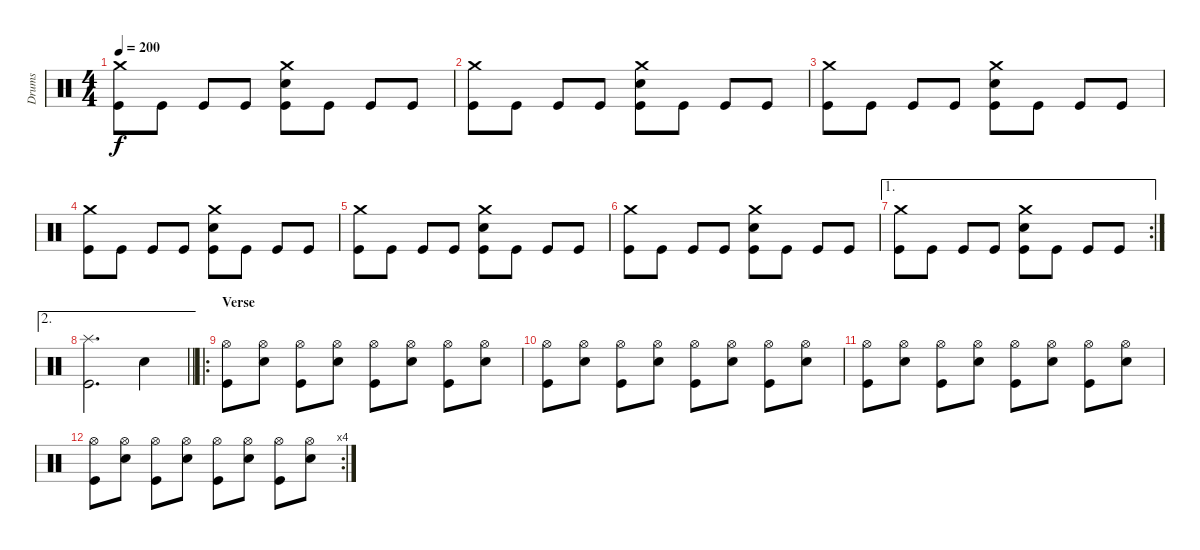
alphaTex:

\track ("Drums" "Drums") {instrument percussion}
\staff {score}
\articulation defaults
\ts (4 4)
\tempo 200
\clef neutral
\ks c
("Crash medium (hit)" "Kick (hit)").8{dy f} "Kick (hit)".8 "Kick (hit)".8 "Kick (hit)".8 ("Crash medium (hit)" "Snare (hit) 2" "Kick (hit)").8 "Kick (hit)".8 "Kick (hit)".8 "Kick (hit)".8 |
("Crash medium (hit)" "Kick (hit)").8 "Kick (hit)".8 "Kick (hit)".8 "Kick (hit)".8 ("Crash medium (hit)" "Snare (hit) 2" "Kick (hit)").8 "Kick (hit)".8 "Kick (hit)".8 "Kick (hit)".8 |
("Crash medium (hit)" "Kick (hit)").8 "Kick (hit)".8 "Kick (hit)".8 "Kick (hit)".8 ("Crash medium (hit)" "Snare (hit) 2" "Kick (hit)").8 "Kick (hit)".8 "Kick (hit)".8 "Kick (hit)".8 |
("Crash medium (hit)" "Kick (hit)").8 "Kick (hit)".8 "Kick (hit)".8 "Kick (hit)".8 ("Crash medium (hit)" "Snare (hit) 2" "Kick (hit)").8 "Kick (hit)".8 "Kick (hit)".8 "Kick (hit)".8 |
("Crash medium (hit)" "Kick (hit)").8 "Kick (hit)".8 "Kick (hit)".8 "Kick (hit)".8 ("Crash medium (hit)" "Snare (hit) 2" "Kick (hit)").8 "Kick (hit)".8 "Kick (hit)".8 "Kick (hit)".8 |
("Crash medium (hit)" "Kick (hit)").8 "Kick (hit)".8 "Kick (hit)".8 "Kick (hit)".8 ("Crash medium (hit)" "Snare (hit) 2" "Kick (hit)").8 "Kick (hit)".8 "Kick (hit)".8 "Kick (hit)".8 |
\ae 1
\rc 2
("Crash medium (hit)" "Kick (hit)").8 "Kick (hit)".8 "Kick (hit)".8 "Kick (hit)".8 ("Crash medium (hit)" "Snare (hit) 2" "Kick (hit)").8 "Kick (hit)".8 "Kick (hit)".8 "Kick (hit)".8 |
\ae 2
\barLineRight lightlight
("Splash (hit)" "Kick (hit)").2{d} "Snare (hit) 2".4 |
\ro
\section ("" "Verse")
("Hi-Hat (open)" "Kick (hit)").8 ("Hi-Hat (open)" "Snare (hit) 2").8 ("Hi-Hat (open)" "Kick (hit)").8 ("Hi-Hat (open)" "Snare (hit) 2").8 ("Hi-Hat (open)" "Kick (hit)").8 ("Hi-Hat (open)" "Snare (hit) 2").8 ("Hi-Hat (open)" "Kick (hit)").8 ("Hi-Hat (open)" "Snare (hit) 2").8 |
("Hi-Hat (open)" "Kick (hit)").8 ("Hi-Hat (open)" "Snare (hit) 2").8 ("Hi-Hat (open)" "Kick (hit)").8 ("Hi-Hat (open)" "Snare (hit) 2").8 ("Hi-Hat (open)" "Kick (hit)").8 ("Hi-Hat (open)" "Snare (hit) 2").8 ("Hi-Hat (open)" "Kick (hit)").8 ("Hi-Hat (open)" "Snare (hit) 2").8 |
("Hi-Hat (open)" "Kick (hit)").8 ("Hi-Hat (open)" "Snare (hit) 2").8 ("Hi-Hat (open)" "Kick (hit)").8 ("Hi-Hat (open)" "Snare (hit) 2").8 ("Hi-Hat (open)" "Kick (hit)").8 ("Hi-Hat (open)" "Snare (hit) 2").8 ("Hi-Hat (open)" "Kick (hit)").8 ("Hi-Hat (open)" "Snare (hit) 2").8 |
\rc 4
("Hi-Hat (open)" "Kick (hit)").8 ("Hi-Hat (open)" "Snare (hit) 2").8 ("Hi-Hat (open)" "Kick (hit)").8 ("Hi-Hat (open)" "Snare (hit) 2").8 ("Hi-Hat (open)" "Kick (hit)").8 ("Hi-Hat (open)" "Snare (hit) 2").8 ("Hi-Hat (open)" "Kick (hit)").8 ("Hi-Hat (open)" "Snare (hit) 2").8
